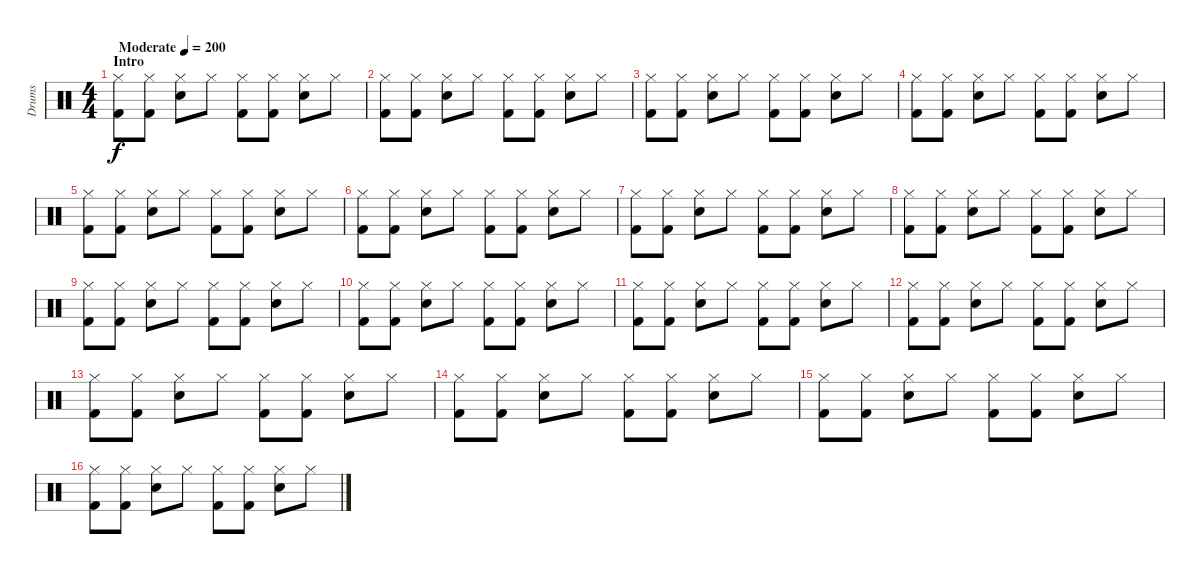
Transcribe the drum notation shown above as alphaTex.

\track ("Drums" "Drums") {instrument percussion}
\staff {score}
\articulation defaults
\ts (4 4)
\section ("" "Intro")
\tempo (200 "Moderate")
\clef neutral
\ks c
("Hi-Hat (closed)" "Kick (hit) 2").8{dy f} ("Hi-Hat (closed)" "Kick (hit) 2").8 ("Hi-Hat (closed)" "Electric Snare (hit)").8 "Hi-Hat (closed)".8 ("Hi-Hat (closed)" "Kick (hit) 2").8 ("Hi-Hat (closed)" "Kick (hit) 2").8 ("Hi-Hat (closed)" "Electric Snare (hit)").8 "Hi-Hat (closed)".8 |
("Hi-Hat (closed)" "Kick (hit) 2").8 ("Hi-Hat (closed)" "Kick (hit) 2").8 ("Hi-Hat (closed)" "Electric Snare (hit)").8 "Hi-Hat (closed)".8 ("Hi-Hat (closed)" "Kick (hit) 2").8 ("Hi-Hat (closed)" "Kick (hit) 2").8 ("Hi-Hat (closed)" "Electric Snare (hit)").8 "Hi-Hat (closed)".8 |
("Hi-Hat (closed)" "Kick (hit) 2").8 ("Hi-Hat (closed)" "Kick (hit) 2").8 ("Hi-Hat (closed)" "Electric Snare (hit)").8 "Hi-Hat (closed)".8 ("Hi-Hat (closed)" "Kick (hit) 2").8 ("Hi-Hat (closed)" "Kick (hit) 2").8 ("Hi-Hat (closed)" "Electric Snare (hit)").8 "Hi-Hat (closed)".8 |
("Hi-Hat (closed)" "Kick (hit) 2").8 ("Hi-Hat (closed)" "Kick (hit) 2").8 ("Hi-Hat (closed)" "Electric Snare (hit)").8 "Hi-Hat (closed)".8 ("Hi-Hat (closed)" "Kick (hit) 2").8 ("Hi-Hat (closed)" "Kick (hit) 2").8 ("Hi-Hat (closed)" "Electric Snare (hit)").8 "Hi-Hat (closed)".8 |
("Hi-Hat (closed)" "Kick (hit) 2").8 ("Hi-Hat (closed)" "Kick (hit) 2").8 ("Hi-Hat (closed)" "Electric Snare (hit)").8 "Hi-Hat (closed)".8 ("Hi-Hat (closed)" "Kick (hit) 2").8 ("Hi-Hat (closed)" "Kick (hit) 2").8 ("Hi-Hat (closed)" "Electric Snare (hit)").8 "Hi-Hat (closed)".8 |
("Hi-Hat (closed)" "Kick (hit) 2").8 ("Hi-Hat (closed)" "Kick (hit) 2").8 ("Hi-Hat (closed)" "Electric Snare (hit)").8 "Hi-Hat (closed)".8 ("Hi-Hat (closed)" "Kick (hit) 2").8 ("Hi-Hat (closed)" "Kick (hit) 2").8 ("Hi-Hat (closed)" "Electric Snare (hit)").8 "Hi-Hat (closed)".8 |
("Hi-Hat (closed)" "Kick (hit) 2").8 ("Hi-Hat (closed)" "Kick (hit) 2").8 ("Hi-Hat (closed)" "Electric Snare (hit)").8 "Hi-Hat (closed)".8 ("Hi-Hat (closed)" "Kick (hit) 2").8 ("Hi-Hat (closed)" "Kick (hit) 2").8 ("Hi-Hat (closed)" "Electric Snare (hit)").8 "Hi-Hat (closed)".8 |
("Hi-Hat (closed)" "Kick (hit) 2").8 ("Hi-Hat (closed)" "Kick (hit) 2").8 ("Hi-Hat (closed)" "Electric Snare (hit)").8 "Hi-Hat (closed)".8 ("Hi-Hat (closed)" "Kick (hit) 2").8 ("Hi-Hat (closed)" "Kick (hit) 2").8 ("Hi-Hat (closed)" "Electric Snare (hit)").8 "Hi-Hat (closed)".8 |
("Hi-Hat (closed)" "Kick (hit) 2").8 ("Hi-Hat (closed)" "Kick (hit) 2").8 ("Hi-Hat (closed)" "Electric Snare (hit)").8 "Hi-Hat (closed)".8 ("Hi-Hat (closed)" "Kick (hit) 2").8 ("Hi-Hat (closed)" "Kick (hit) 2").8 ("Hi-Hat (closed)" "Electric Snare (hit)").8 "Hi-Hat (closed)".8 |
("Hi-Hat (closed)" "Kick (hit) 2").8 ("Hi-Hat (closed)" "Kick (hit) 2").8 ("Hi-Hat (closed)" "Electric Snare (hit)").8 "Hi-Hat (closed)".8 ("Hi-Hat (closed)" "Kick (hit) 2").8 ("Hi-Hat (closed)" "Kick (hit) 2").8 ("Hi-Hat (closed)" "Electric Snare (hit)").8 "Hi-Hat (closed)".8 |
("Hi-Hat (closed)" "Kick (hit) 2").8 ("Hi-Hat (closed)" "Kick (hit) 2").8 ("Hi-Hat (closed)" "Electric Snare (hit)").8 "Hi-Hat (closed)".8 ("Hi-Hat (closed)" "Kick (hit) 2").8 ("Hi-Hat (closed)" "Kick (hit) 2").8 ("Hi-Hat (closed)" "Electric Snare (hit)").8 "Hi-Hat (closed)".8 |
("Hi-Hat (closed)" "Kick (hit) 2").8 ("Hi-Hat (closed)" "Kick (hit) 2").8 ("Hi-Hat (closed)" "Electric Snare (hit)").8 "Hi-Hat (closed)".8 ("Hi-Hat (closed)" "Kick (hit) 2").8 ("Hi-Hat (closed)" "Kick (hit) 2").8 ("Hi-Hat (closed)" "Electric Snare (hit)").8 "Hi-Hat (closed)".8 |
("Hi-Hat (closed)" "Kick (hit) 2").8 ("Hi-Hat (closed)" "Kick (hit) 2").8 ("Hi-Hat (closed)" "Electric Snare (hit)").8 "Hi-Hat (closed)".8 ("Hi-Hat (closed)" "Kick (hit) 2").8 ("Hi-Hat (closed)" "Kick (hit) 2").8 ("Hi-Hat (closed)" "Electric Snare (hit)").8 "Hi-Hat (closed)".8 |
("Hi-Hat (closed)" "Kick (hit) 2").8 ("Hi-Hat (closed)" "Kick (hit) 2").8 ("Hi-Hat (closed)" "Electric Snare (hit)").8 "Hi-Hat (closed)".8 ("Hi-Hat (closed)" "Kick (hit) 2").8 ("Hi-Hat (closed)" "Kick (hit) 2").8 ("Hi-Hat (closed)" "Electric Snare (hit)").8 "Hi-Hat (closed)".8 |
("Hi-Hat (closed)" "Kick (hit) 2").8 ("Hi-Hat (closed)" "Kick (hit) 2").8 ("Hi-Hat (closed)" "Electric Snare (hit)").8 "Hi-Hat (closed)".8 ("Hi-Hat (closed)" "Kick (hit) 2").8 ("Hi-Hat (closed)" "Kick (hit) 2").8 ("Hi-Hat (closed)" "Electric Snare (hit)").8 "Hi-Hat (closed)".8 |
("Hi-Hat (closed)" "Kick (hit) 2").8 ("Hi-Hat (closed)" "Kick (hit) 2").8 ("Hi-Hat (closed)" "Electric Snare (hit)").8 "Hi-Hat (closed)".8 ("Hi-Hat (closed)" "Kick (hit) 2").8 ("Hi-Hat (closed)" "Kick (hit) 2").8 ("Hi-Hat (closed)" "Electric Snare (hit)").8 "Hi-Hat (closed)".8
